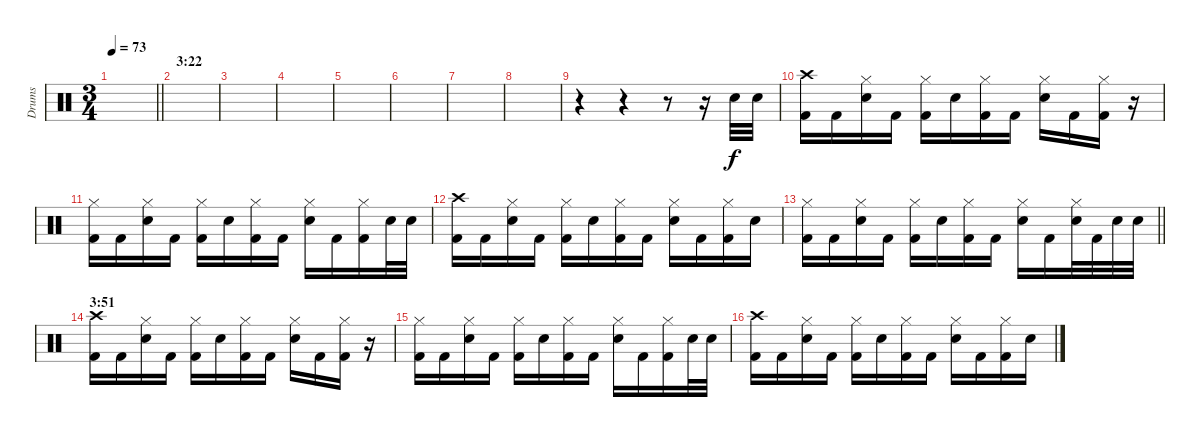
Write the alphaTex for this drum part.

\track ("Drums" "Drums") {instrument percussion}
\staff {score}
\articulation defaults
\ts (3 4)
\tempo 73
\clef neutral
\barLineRight lightlight
\ks c
|
\section ("" "3:22")
|
|
|
|
|
|
|
r.4 r.4 r.8 r.16 "Electric Snare (hit)".32{dy f} "Electric Snare (hit)".32 |
("Crash high (hit)" "Kick (hit) 2").16 "Kick (hit) 2".16 ("Hi-Hat (closed)" "Electric Snare (hit)").16 "Kick (hit) 2".16 ("Hi-Hat (closed)" "Kick (hit) 2").16 "Electric Snare (hit)".16 ("Hi-Hat (closed)" "Kick (hit) 2").16 "Kick (hit) 2".16 ("Hi-Hat (closed)" "Electric Snare (hit)").16 "Kick (hit) 2".16 ("Hi-Hat (closed)" "Kick (hit) 2").16 r.16 |
("Hi-Hat (closed)" "Kick (hit) 2").16 "Kick (hit) 2".16 ("Hi-Hat (closed)" "Electric Snare (hit)").16 "Kick (hit) 2".16 ("Hi-Hat (closed)" "Kick (hit) 2").16 "Electric Snare (hit)".16 ("Hi-Hat (closed)" "Kick (hit) 2").16 "Kick (hit) 2".16 ("Hi-Hat (closed)" "Electric Snare (hit)").16 "Kick (hit) 2".16 ("Hi-Hat (closed)" "Kick (hit) 2").16 "Electric Snare (hit)".32 "Electric Snare (hit)".32 |
("Crash high (hit)" "Kick (hit) 2").16 "Kick (hit) 2".16 ("Hi-Hat (closed)" "Electric Snare (hit)").16 "Kick (hit) 2".16 ("Hi-Hat (closed)" "Kick (hit) 2").16 "Electric Snare (hit)".16 ("Hi-Hat (closed)" "Kick (hit) 2").16 "Kick (hit) 2".16 ("Hi-Hat (closed)" "Electric Snare (hit)").16 "Kick (hit) 2".16 ("Hi-Hat (closed)" "Kick (hit) 2").16 "Electric Snare (hit)".16 |
\barLineRight lightlight
("Hi-Hat (closed)" "Kick (hit) 2").16 "Kick (hit) 2".16 ("Hi-Hat (closed)" "Electric Snare (hit)").16 "Kick (hit) 2".16 ("Hi-Hat (closed)" "Kick (hit) 2").16 "Electric Snare (hit)".16 ("Hi-Hat (closed)" "Kick (hit) 2").16 "Kick (hit) 2".16 ("Hi-Hat (closed)" "Electric Snare (hit)").16 "Kick (hit) 2".16 ("Hi-Hat (closed)" "Electric Snare (hit)").32 "Kick (hit) 2".32 "Electric Snare (hit)".32 "Electric Snare (hit)".32 |
\section ("" "3:51")
("Crash high (hit)" "Kick (hit) 2").16 "Kick (hit) 2".16 ("Hi-Hat (closed)" "Electric Snare (hit)").16 "Kick (hit) 2".16 ("Hi-Hat (closed)" "Kick (hit) 2").16 "Electric Snare (hit)".16 ("Hi-Hat (closed)" "Kick (hit) 2").16 "Kick (hit) 2".16 ("Hi-Hat (closed)" "Electric Snare (hit)").16 "Kick (hit) 2".16 ("Hi-Hat (closed)" "Kick (hit) 2").16 r.16 |
("Hi-Hat (closed)" "Kick (hit) 2").16 "Kick (hit) 2".16 ("Hi-Hat (closed)" "Electric Snare (hit)").16 "Kick (hit) 2".16 ("Hi-Hat (closed)" "Kick (hit) 2").16 "Electric Snare (hit)".16 ("Hi-Hat (closed)" "Kick (hit) 2").16 "Kick (hit) 2".16 ("Hi-Hat (closed)" "Electric Snare (hit)").16 "Kick (hit) 2".16 ("Hi-Hat (closed)" "Kick (hit) 2").16 "Electric Snare (hit)".32 "Electric Snare (hit)".32 |
("Crash high (hit)" "Kick (hit) 2").16 "Kick (hit) 2".16 ("Hi-Hat (closed)" "Electric Snare (hit)").16 "Kick (hit) 2".16 ("Hi-Hat (closed)" "Kick (hit) 2").16 "Electric Snare (hit)".16 ("Hi-Hat (closed)" "Kick (hit) 2").16 "Kick (hit) 2".16 ("Hi-Hat (closed)" "Electric Snare (hit)").16 "Kick (hit) 2".16 ("Hi-Hat (closed)" "Kick (hit) 2").16 "Electric Snare (hit)".16
